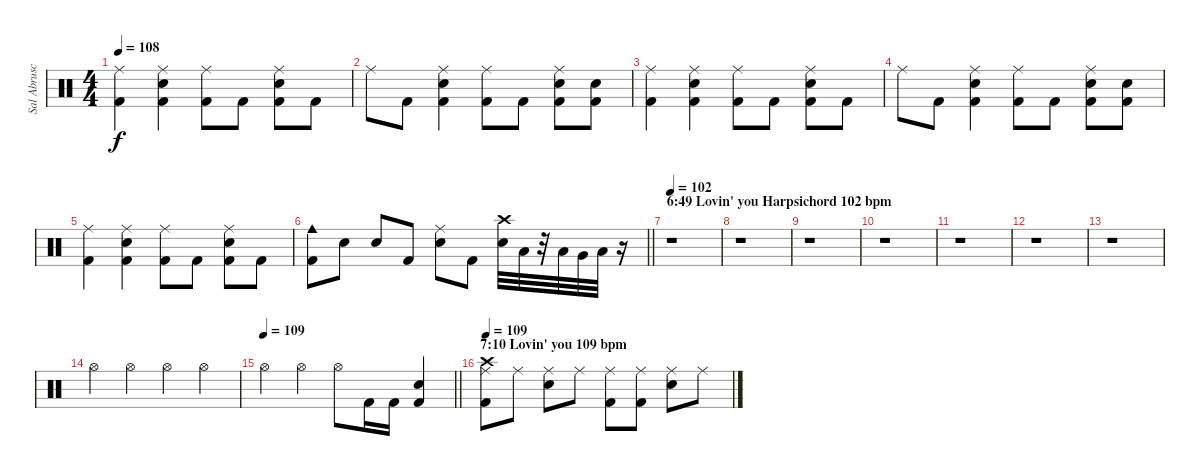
\track ("Sal Abruscato (Drums)" "Sal Abrusc") {instrument percussion}
\staff {score}
\articulation defaults
\ts (4 4)
\tempo 108
\clef neutral
\ks c
("Ride (middle)" "Kick (hit) 2").4{dy f} ("Ride (middle)" "Kick (hit) 2" "Electric Snare (hit)").4 ("Ride (middle)" "Kick (hit) 2").8 "Kick (hit) 2".8 ("Ride (middle)" "Kick (hit) 2" "Electric Snare (hit)").8 "Kick (hit) 2".8 |
"Ride (middle)".8 "Kick (hit) 2".8 ("Ride (middle)" "Electric Snare (hit)" "Kick (hit) 2").4 ("Ride (middle)" "Kick (hit) 2").8 "Kick (hit) 2".8 ("Ride (middle)" "Electric Snare (hit)" "Kick (hit) 2").8 ("Electric Snare (hit)" "Kick (hit) 2").8 |
("Ride (middle)" "Kick (hit) 2").4 ("Ride (middle)" "Kick (hit) 2" "Electric Snare (hit)").4 ("Ride (middle)" "Kick (hit) 2").8 "Kick (hit) 2".8 ("Ride (middle)" "Kick (hit) 2" "Electric Snare (hit)").8 "Kick (hit) 2".8 |
"Ride (middle)".8 "Kick (hit) 2".8 ("Ride (middle)" "Electric Snare (hit)" "Kick (hit) 2").4 ("Ride (middle)" "Kick (hit) 2").8 "Kick (hit) 2".8 ("Ride (middle)" "Electric Snare (hit)" "Kick (hit) 2").8 ("Electric Snare (hit)" "Kick (hit) 2").8 |
("Ride (middle)" "Kick (hit) 2").4 ("Ride (middle)" "Kick (hit) 2" "Electric Snare (hit)").4 ("Ride (middle)" "Kick (hit) 2").8 "Kick (hit) 2".8 ("Ride (middle)" "Kick (hit) 2" "Electric Snare (hit)").8 "Kick (hit) 2".8 |
\barLineRight lightlight
("Kick (hit) 2" "Cowbell medium (hit)").8 "Electric Snare (hit)".8 "Electric Snare (hit)".8 "Kick (hit) 2".8 ("Ride (middle)" "Electric Snare (hit)").8 "Kick (hit) 2".8 ("Crash high (hit)" "Electric Snare (hit)").32 "Low Tom (hit)".32 r.32 "Low Tom (hit)".32 "Very Low Tom (hit)".32 "Low Floor Tom (hit)".32 r.16 |
\section ("" "6:49 Lovin' you Harpsichord 102 bpm")
\tempo 102
r.1 |
r.1 |
r.1 |
r.1 |
r.1 |
r.1 |
r.1 |
"Hi-Hat (open)".4 "Hi-Hat (open)".4 "Hi-Hat (open)".4 "Hi-Hat (open)".4 |
\tempo 109
\barLineRight lightlight "Hi-Hat (open)".4 "Hi-Hat (open)".4 "Hi-Hat (open)".8 "Kick (hit) 2".16 "Kick (hit) 2".16
("Kick (hit) 2" "Electric Snare (hit)").4 |
\section ("" "7:10 Lovin' you 109 bpm")
\tempo 109
("Ride (middle)" "Crash high (hit)" "Kick (hit) 2").8 "Ride (middle)".8 ("Ride (middle)" "Electric Snare (hit)").8 "Ride (middle)".8 ("Ride (middle)" "Kick (hit) 2").8 ("Ride (middle)" "Kick (hit) 2").8 ("Ride (middle)" "Electric Snare (hit)").8 "Ride (middle)".8
